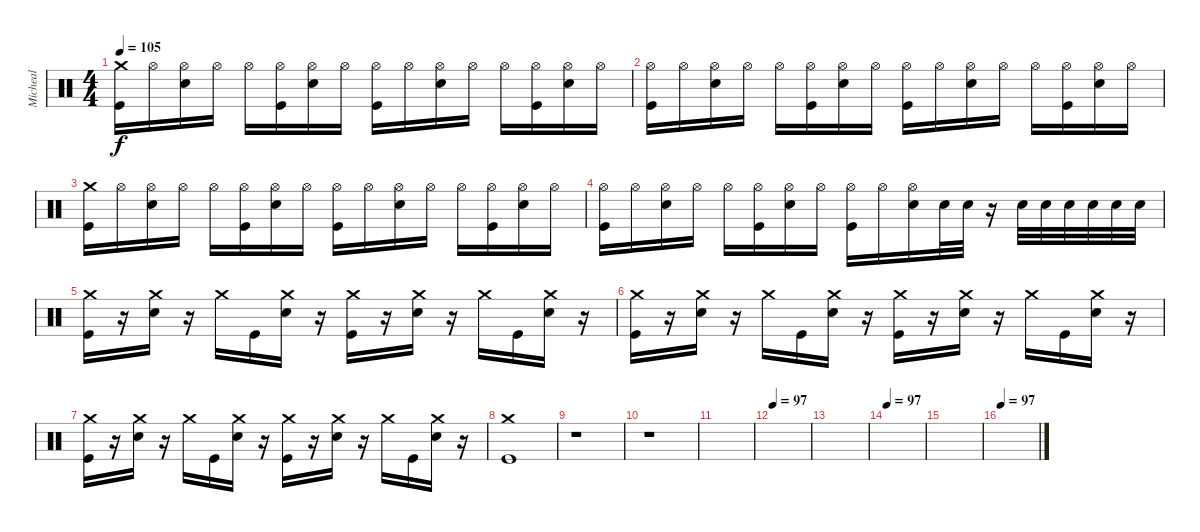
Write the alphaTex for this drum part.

\track ("Micheal" "Micheal") {instrument percussion}
\staff {score}
\articulation defaults
\ts (4 4)
\tempo 105
\clef neutral
\ks c
("Crash medium (hit)" "Kick (hit)").16{dy f} "Hi-Hat (open)".16 ("Hi-Hat (open)" "Electric Snare (hit)").16 "Hi-Hat (open)".16 "Hi-Hat (open)".16 ("Hi-Hat (open)" "Kick (hit)").16 ("Hi-Hat (open)" "Electric Snare (hit)").16 "Hi-Hat (open)".16 ("Hi-Hat (open)" "Kick (hit)").16 "Hi-Hat (open)".16 ("Hi-Hat (open)" "Electric Snare (hit)").16 "Hi-Hat (open)".16 "Hi-Hat (open)".16 ("Hi-Hat (open)" "Kick (hit)").16 ("Hi-Hat (open)" "Electric Snare (hit)").16 "Hi-Hat (open)".16 |
("Hi-Hat (open)" "Kick (hit)").16 "Hi-Hat (open)".16 ("Hi-Hat (open)" "Electric Snare (hit)").16 "Hi-Hat (open)".16 "Hi-Hat (open)".16 ("Hi-Hat (open)" "Kick (hit)").16 ("Hi-Hat (open)" "Electric Snare (hit)").16 "Hi-Hat (open)".16 ("Hi-Hat (open)" "Kick (hit)").16 "Hi-Hat (open)".16 ("Hi-Hat (open)" "Electric Snare (hit)").16 "Hi-Hat (open)".16 "Hi-Hat (open)".16 ("Hi-Hat (open)" "Kick (hit)").16 ("Hi-Hat (open)" "Electric Snare (hit)").16 "Hi-Hat (open)".16 |
("Crash medium (hit)" "Kick (hit)").16 "Hi-Hat (open)".16 ("Hi-Hat (open)" "Electric Snare (hit)").16 "Hi-Hat (open)".16 "Hi-Hat (open)".16 ("Hi-Hat (open)" "Kick (hit)").16 ("Hi-Hat (open)" "Electric Snare (hit)").16 "Hi-Hat (open)".16 ("Hi-Hat (open)" "Kick (hit)").16 "Hi-Hat (open)".16 ("Hi-Hat (open)" "Electric Snare (hit)").16 "Hi-Hat (open)".16 "Hi-Hat (open)".16 ("Hi-Hat (open)" "Kick (hit)").16 ("Hi-Hat (open)" "Electric Snare (hit)").16 "Hi-Hat (open)".16 |
("Hi-Hat (open)" "Kick (hit)").16 "Hi-Hat (open)".16 ("Hi-Hat (open)" "Electric Snare (hit)").16 "Hi-Hat (open)".16 "Hi-Hat (open)".16 ("Hi-Hat (open)" "Kick (hit)").16 ("Hi-Hat (open)" "Electric Snare (hit)").16 "Hi-Hat (open)".16 ("Hi-Hat (open)" "Kick (hit)").16 "Hi-Hat (open)".16 ("Hi-Hat (open)" "Electric Snare (hit)").16 "Electric Snare (hit)".32 "Electric Snare (hit)".32 r.16 "Electric Snare (hit)".32 "Electric Snare (hit)".32 "Electric Snare (hit)".32 "Electric Snare (hit)".32 "Electric Snare (hit)".32 "Electric Snare (hit)".32 |
("Crash medium (hit)" "Kick (hit)").16 r.16 ("Crash medium (hit)" "Electric Snare (hit)").16 r.16 "Crash medium (hit)".16 "Kick (hit)".16 ("Crash medium (hit)" "Electric Snare (hit)").16 r.16 ("Crash medium (hit)" "Kick (hit)").16 r.16 ("Crash medium (hit)" "Electric Snare (hit)").16 r.16 "Crash medium (hit)".16 "Kick (hit)".16 ("Crash medium (hit)" "Electric Snare (hit)").16 r.16 |
("Crash medium (hit)" "Kick (hit)").16 r.16 ("Crash medium (hit)" "Electric Snare (hit)").16 r.16 "Crash medium (hit)".16 "Kick (hit)".16 ("Crash medium (hit)" "Electric Snare (hit)").16 r.16 ("Crash medium (hit)" "Kick (hit)").16 r.16 ("Crash medium (hit)" "Electric Snare (hit)").16 r.16 "Crash medium (hit)".16 "Kick (hit)".16 ("Crash medium (hit)" "Electric Snare (hit)").16 r.16 |
("Crash medium (hit)" "Kick (hit)").16 r.16 ("Crash medium (hit)" "Electric Snare (hit)").16 r.16 "Crash medium (hit)".16 "Kick (hit)".16 ("Crash medium (hit)" "Electric Snare (hit)").16 r.16 ("Crash medium (hit)" "Kick (hit)").16 r.16 ("Crash medium (hit)" "Electric Snare (hit)").16 r.16 "Crash medium (hit)".16 "Kick (hit)".16 ("Crash medium (hit)" "Electric Snare (hit)").16 r.16 |
("Crash medium (hit)" "Kick (hit)").1 |
r.1 |
r.1 |
|
\tempo 97
|
|
\tempo 97
|
|
\tempo 97
